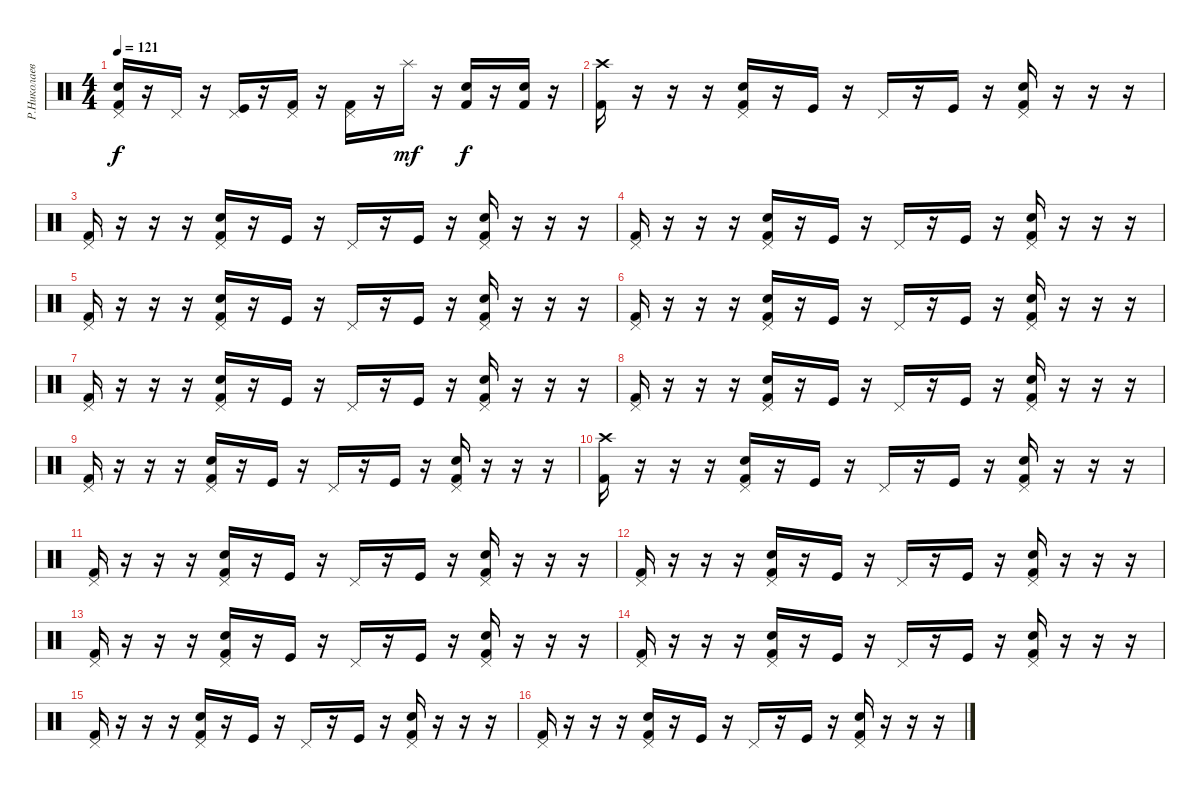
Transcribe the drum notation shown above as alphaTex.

\track ("Р.Николаев" "Р.Николаев") {instrument percussion}
\staff {score}
\articulation defaults
\ts (4 4)
\tempo 121
\clef neutral
\ks c
("Pedal Hi-Hat (hit)" "Snare (hit) 2" "Kick (hit) 2").16{dy f} r.16 "Pedal Hi-Hat (hit)".16 r.16 ("Pedal Hi-Hat (hit)" "Kick (hit)").16 r.16 ("Pedal Hi-Hat (hit)" "Kick (hit) 2").16 r.16 ("Pedal Hi-Hat (hit)" "Kick (hit) 2").16 r.16 "Splash (hit)".16{dy mf} r.16 ("Snare (hit) 2" "Kick (hit) 2").16{dy f} r.16 ("Snare (hit) 2" "Kick (hit) 2").16 r.16 |
("Crash high (hit)" "Kick (hit) 2").16 r.16 r.16 r.16 ("Pedal Hi-Hat (hit)" "Snare (hit) 2" "Kick (hit) 2").16 r.16 "Kick (hit)".16 r.16 "Pedal Hi-Hat (hit)".16 r.16 "Kick (hit)".16 r.16 ("Pedal Hi-Hat (hit)" "Snare (hit) 2" "Kick (hit) 2").16 r.16 r.16 r.16 |
("Pedal Hi-Hat (hit)" "Kick (hit) 2").16 r.16 r.16 r.16 ("Pedal Hi-Hat (hit)" "Snare (hit) 2" "Kick (hit) 2").16 r.16 "Kick (hit)".16 r.16 "Pedal Hi-Hat (hit)".16 r.16 "Kick (hit)".16 r.16 ("Pedal Hi-Hat (hit)" "Snare (hit) 2" "Kick (hit) 2").16 r.16 r.16 r.16 |
("Pedal Hi-Hat (hit)" "Kick (hit) 2").16 r.16 r.16 r.16 ("Pedal Hi-Hat (hit)" "Snare (hit) 2" "Kick (hit) 2").16 r.16 "Kick (hit)".16 r.16 "Pedal Hi-Hat (hit)".16 r.16 "Kick (hit)".16 r.16 ("Pedal Hi-Hat (hit)" "Snare (hit) 2" "Kick (hit) 2").16 r.16 r.16 r.16 |
("Pedal Hi-Hat (hit)" "Kick (hit) 2").16 r.16 r.16 r.16 ("Pedal Hi-Hat (hit)" "Snare (hit) 2" "Kick (hit) 2").16 r.16 "Kick (hit)".16 r.16 "Pedal Hi-Hat (hit)".16 r.16 "Kick (hit)".16 r.16 ("Pedal Hi-Hat (hit)" "Snare (hit) 2" "Kick (hit) 2").16 r.16 r.16 r.16 |
("Pedal Hi-Hat (hit)" "Kick (hit) 2").16 r.16 r.16 r.16 ("Pedal Hi-Hat (hit)" "Snare (hit) 2" "Kick (hit) 2").16 r.16 "Kick (hit)".16 r.16 "Pedal Hi-Hat (hit)".16 r.16 "Kick (hit)".16 r.16 ("Pedal Hi-Hat (hit)" "Snare (hit) 2" "Kick (hit) 2").16 r.16 r.16 r.16 |
("Pedal Hi-Hat (hit)" "Kick (hit) 2").16 r.16 r.16 r.16 ("Pedal Hi-Hat (hit)" "Snare (hit) 2" "Kick (hit) 2").16 r.16 "Kick (hit)".16 r.16 "Pedal Hi-Hat (hit)".16 r.16 "Kick (hit)".16 r.16 ("Pedal Hi-Hat (hit)" "Snare (hit) 2" "Kick (hit) 2").16 r.16 r.16 r.16 |
("Pedal Hi-Hat (hit)" "Kick (hit) 2").16 r.16 r.16 r.16 ("Pedal Hi-Hat (hit)" "Snare (hit) 2" "Kick (hit) 2").16 r.16 "Kick (hit)".16 r.16 "Pedal Hi-Hat (hit)".16 r.16 "Kick (hit)".16 r.16 ("Pedal Hi-Hat (hit)" "Snare (hit) 2" "Kick (hit) 2").16 r.16 r.16 r.16 |
("Pedal Hi-Hat (hit)" "Kick (hit) 2").16 r.16 r.16 r.16 ("Pedal Hi-Hat (hit)" "Snare (hit) 2" "Kick (hit) 2").16 r.16 "Kick (hit)".16 r.16 "Pedal Hi-Hat (hit)".16 r.16 "Kick (hit)".16 r.16 ("Pedal Hi-Hat (hit)" "Snare (hit) 2" "Kick (hit) 2").16 r.16 r.16 r.16 |
("Crash high (hit)" "Kick (hit) 2").16 r.16 r.16 r.16 ("Pedal Hi-Hat (hit)" "Snare (hit) 2" "Kick (hit) 2").16 r.16 "Kick (hit)".16 r.16 "Pedal Hi-Hat (hit)".16 r.16 "Kick (hit)".16 r.16 ("Pedal Hi-Hat (hit)" "Snare (hit) 2" "Kick (hit) 2").16 r.16 r.16 r.16 |
("Pedal Hi-Hat (hit)" "Kick (hit) 2").16 r.16 r.16 r.16 ("Pedal Hi-Hat (hit)" "Snare (hit) 2" "Kick (hit) 2").16 r.16 "Kick (hit)".16 r.16 "Pedal Hi-Hat (hit)".16 r.16 "Kick (hit)".16 r.16 ("Pedal Hi-Hat (hit)" "Snare (hit) 2" "Kick (hit) 2").16 r.16 r.16 r.16 |
("Pedal Hi-Hat (hit)" "Kick (hit) 2").16 r.16 r.16 r.16 ("Pedal Hi-Hat (hit)" "Snare (hit) 2" "Kick (hit) 2").16 r.16 "Kick (hit)".16 r.16 "Pedal Hi-Hat (hit)".16 r.16 "Kick (hit)".16 r.16 ("Pedal Hi-Hat (hit)" "Snare (hit) 2" "Kick (hit) 2").16 r.16 r.16 r.16 |
("Pedal Hi-Hat (hit)" "Kick (hit) 2").16 r.16 r.16 r.16 ("Pedal Hi-Hat (hit)" "Snare (hit) 2" "Kick (hit) 2").16 r.16 "Kick (hit)".16 r.16 "Pedal Hi-Hat (hit)".16 r.16 "Kick (hit)".16 r.16 ("Pedal Hi-Hat (hit)" "Snare (hit) 2" "Kick (hit) 2").16 r.16 r.16 r.16 |
("Pedal Hi-Hat (hit)" "Kick (hit) 2").16 r.16 r.16 r.16 ("Pedal Hi-Hat (hit)" "Snare (hit) 2" "Kick (hit) 2").16 r.16 "Kick (hit)".16 r.16 "Pedal Hi-Hat (hit)".16 r.16 "Kick (hit)".16 r.16 ("Pedal Hi-Hat (hit)" "Snare (hit) 2" "Kick (hit) 2").16 r.16 r.16 r.16 |
("Pedal Hi-Hat (hit)" "Kick (hit) 2").16 r.16 r.16 r.16 ("Pedal Hi-Hat (hit)" "Snare (hit) 2" "Kick (hit) 2").16 r.16 "Kick (hit)".16 r.16 "Pedal Hi-Hat (hit)".16 r.16 "Kick (hit)".16 r.16 ("Pedal Hi-Hat (hit)" "Snare (hit) 2" "Kick (hit) 2").16 r.16 r.16 r.16 |
("Pedal Hi-Hat (hit)" "Kick (hit) 2").16 r.16 r.16 r.16 ("Pedal Hi-Hat (hit)" "Snare (hit) 2" "Kick (hit) 2").16 r.16 "Kick (hit)".16 r.16 "Pedal Hi-Hat (hit)".16 r.16 "Kick (hit)".16 r.16 ("Pedal Hi-Hat (hit)" "Snare (hit) 2" "Kick (hit) 2").16 r.16 r.16 r.16
